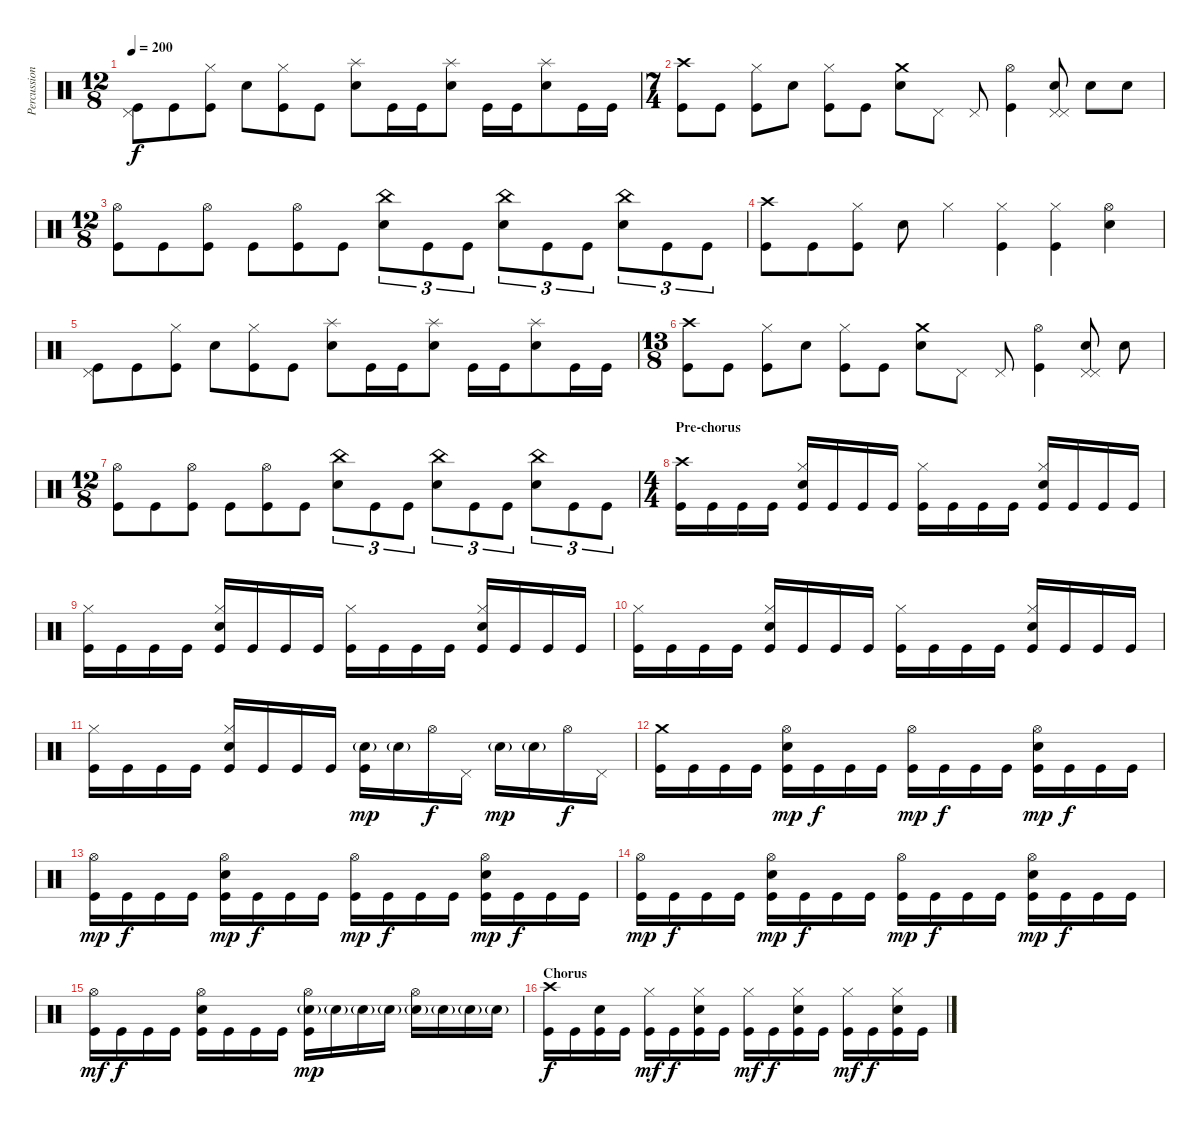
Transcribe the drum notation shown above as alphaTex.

\track ("Percussion" "Percussion") {instrument percussion}
\staff {score}
\articulation defaults
\ts (12 8)
\tempo 200
\clef neutral
\ks c
("Pedal Hi-Hat (hit)" "Kick (hit)").8{dy f} "Kick (hit)".8 ("Hi-Hat (closed)" "Kick (hit)").8 "Electric Snare (hit)".8 ("Hi-Hat (closed)" "Kick (hit)").8 "Kick (hit)".8 ("Splash (hit)" "Electric Snare (hit)").8 "Kick (hit)".16 "Kick (hit)".16 ("Splash (hit)" "Electric Snare (hit)").8 "Kick (hit)".16 "Kick (hit)".16 ("Splash (hit)" "Electric Snare (hit)").8 "Kick (hit)".16 "Kick (hit)".16 |
\ts (7 4)
("Crash high (hit)" "Kick (hit)").8 "Kick (hit)".8 ("Hi-Hat (closed)" "Kick (hit)").8 "Electric Snare (hit)".8 ("Hi-Hat (closed)" "Kick (hit)").8 "Kick (hit)".8 ("Crash medium (hit)" "Electric Snare (hit)").8 "Pedal Hi-Hat (hit)".8 "Pedal Hi-Hat (hit)".8 ("Hi-Hat (open)" "Kick (hit)").4 ("Pedal Hi-Hat (hit)" "Electric Snare (hit)" "Pedal Hi-Hat (hit)").8 "Electric Snare (hit)".8 "Electric Snare (hit)".8 |
\ts (12 8)
("Hi-Hat (open)" "Kick (hit)").8 "Kick (hit)".8 ("Hi-Hat (open)" "Kick (hit)").8 "Kick (hit)".8 ("Hi-Hat (open)" "Kick (hit)").8 "Kick (hit)".8 ("China (hit)" "Electric Snare (hit)").8{tu (3 2)} "Kick (hit)".8{tu (3 2)} "Kick (hit)".8{tu (3 2)} ("China (hit)" "Electric Snare (hit)").8{tu (3 2)} "Kick (hit)".8{tu (3 2)} "Kick (hit)".8{tu (3 2)} ("China (hit)" "Electric Snare (hit)").8{tu (3 2)} "Kick (hit)".8{tu (3 2)} "Kick (hit)".8{tu (3 2)} |
("Crash high (hit)" "Kick (hit)").8 "Kick (hit)".8 ("Hi-Hat (closed)" "Kick (hit)").8 "Electric Snare (hit)".8 "Hi-Hat (closed)".4 ("Hi-Hat (closed)" "Kick (hit)").4 ("Hi-Hat (closed)" "Kick (hit)").4 ("Hi-Hat (open)" "Electric Snare (hit)").4 |
("Pedal Hi-Hat (hit)" "Kick (hit)").8 "Kick (hit)".8 ("Hi-Hat (closed)" "Kick (hit)").8 "Electric Snare (hit)".8 ("Hi-Hat (closed)" "Kick (hit)").8 "Kick (hit)".8 ("Splash (hit)" "Electric Snare (hit)").8 "Kick (hit)".16 "Kick (hit)".16 ("Splash (hit)" "Electric Snare (hit)").8 "Kick (hit)".16 "Kick (hit)".16 ("Splash (hit)" "Electric Snare (hit)").8 "Kick (hit)".16 "Kick (hit)".16 |
\ts (13 8)
("Crash high (hit)" "Kick (hit)").8 "Kick (hit)".8 ("Hi-Hat (closed)" "Kick (hit)").8 "Electric Snare (hit)".8 ("Hi-Hat (closed)" "Kick (hit)").8 "Kick (hit)".8 ("Crash medium (hit)" "Electric Snare (hit)").8 "Pedal Hi-Hat (hit)".8 "Pedal Hi-Hat (hit)".8 ("Hi-Hat (open)" "Kick (hit)").4 ("Pedal Hi-Hat (hit)" "Electric Snare (hit)" "Pedal Hi-Hat (hit)").8 "Electric Snare (hit)".8 |
\ts (12 8)
("Hi-Hat (open)" "Kick (hit)").8 "Kick (hit)".8 ("Hi-Hat (open)" "Kick (hit)").8 "Kick (hit)".8 ("Hi-Hat (open)" "Kick (hit)").8 "Kick (hit)".8 ("China (hit)" "Electric Snare (hit)").8{tu (3 2)} "Kick (hit)".8{tu (3 2)} "Kick (hit)".8{tu (3 2)} ("China (hit)" "Electric Snare (hit)").8{tu (3 2)} "Kick (hit)".8{tu (3 2)} "Kick (hit)".8{tu (3 2)} ("China (hit)" "Electric Snare (hit)").8{tu (3 2)} "Kick (hit)".8{tu (3 2)} "Kick (hit)".8{tu (3 2)} |
\ts (4 4)
\section ("" "Pre-chorus")
("Crash high (hit)" "Kick (hit)").16 "Kick (hit)".16 "Kick (hit)".16 "Kick (hit)".16 ("Hi-Hat (closed)" "Electric Snare (hit)" "Kick (hit)").16 "Kick (hit)".16 "Kick (hit)".16 "Kick (hit)".16 ("Hi-Hat (closed)" "Kick (hit)").16 "Kick (hit)".16 "Kick (hit)".16 "Kick (hit)".16 ("Hi-Hat (closed)" "Electric Snare (hit)" "Kick (hit)").16 "Kick (hit)".16 "Kick (hit)".16 "Kick (hit)".16 |
("Hi-Hat (closed)" "Kick (hit)").16 "Kick (hit)".16 "Kick (hit)".16 "Kick (hit)".16 ("Hi-Hat (closed)" "Electric Snare (hit)" "Kick (hit)").16 "Kick (hit)".16 "Kick (hit)".16 "Kick (hit)".16 ("Hi-Hat (closed)" "Kick (hit)").16 "Kick (hit)".16 "Kick (hit)".16 "Kick (hit)".16 ("Hi-Hat (closed)" "Electric Snare (hit)" "Kick (hit)").16 "Kick (hit)".16 "Kick (hit)".16 "Kick (hit)".16 |
("Hi-Hat (closed)" "Kick (hit)").16 "Kick (hit)".16 "Kick (hit)".16 "Kick (hit)".16 ("Hi-Hat (closed)" "Electric Snare (hit)" "Kick (hit)").16 "Kick (hit)".16 "Kick (hit)".16 "Kick (hit)".16 ("Hi-Hat (closed)" "Kick (hit)").16 "Kick (hit)".16 "Kick (hit)".16 "Kick (hit)".16 ("Hi-Hat (closed)" "Electric Snare (hit)" "Kick (hit)").16 "Kick (hit)".16 "Kick (hit)".16 "Kick (hit)".16 |
("Hi-Hat (closed)" "Kick (hit)").16 "Kick (hit)".16 "Kick (hit)".16 "Kick (hit)".16 ("Hi-Hat (closed)" "Electric Snare (hit)" "Kick (hit)").16 "Kick (hit)".16 "Kick (hit)".16 "Kick (hit)".16 ("Electric Snare (hit)"{g} "Kick (hit)").16{dy mp} "Electric Snare (hit)"{g}.16 "Hi-Hat (open)".16{dy f} "Pedal Hi-Hat (hit)".16 "Electric Snare (hit)"{g}.16{dy mp} "Electric Snare (hit)"{g}.16 "Hi-Hat (open)".16{dy f} "Pedal Hi-Hat (hit)".16 |
("Crash medium (hit)" "Kick (hit)").16 "Kick (hit)".16 "Kick (hit)".16 "Kick (hit)".16 ("Hi-Hat (open)" "Electric Snare (hit)" "Kick (hit)").16{dy mp} "Kick (hit)".16{dy f} "Kick (hit)".16 "Kick (hit)".16 ("Hi-Hat (open)" "Kick (hit)").16{dy mp} "Kick (hit)".16{dy f} "Kick (hit)".16 "Kick (hit)".16 ("Hi-Hat (open)" "Electric Snare (hit)" "Kick (hit)").16{dy mp} "Kick (hit)".16{dy f} "Kick (hit)".16 "Kick (hit)".16 |
("Hi-Hat (open)" "Kick (hit)").16{dy mp} "Kick (hit)".16{dy f} "Kick (hit)".16 "Kick (hit)".16 ("Hi-Hat (open)" "Electric Snare (hit)" "Kick (hit)").16{dy mp} "Kick (hit)".16{dy f} "Kick (hit)".16 "Kick (hit)".16 ("Hi-Hat (open)" "Kick (hit)").16{dy mp} "Kick (hit)".16{dy f} "Kick (hit)".16 "Kick (hit)".16 ("Hi-Hat (open)" "Electric Snare (hit)" "Kick (hit)").16{dy mp} "Kick (hit)".16{dy f} "Kick (hit)".16 "Kick (hit)".16 |
("Hi-Hat (open)" "Kick (hit)").16{dy mp} "Kick (hit)".16{dy f} "Kick (hit)".16 "Kick (hit)".16 ("Hi-Hat (open)" "Electric Snare (hit)" "Kick (hit)").16{dy mp} "Kick (hit)".16{dy f} "Kick (hit)".16 "Kick (hit)".16 ("Hi-Hat (open)" "Kick (hit)").16{dy mp} "Kick (hit)".16{dy f} "Kick (hit)".16 "Kick (hit)".16 ("Hi-Hat (open)" "Electric Snare (hit)" "Kick (hit)").16{dy mp} "Kick (hit)".16{dy f} "Kick (hit)".16 "Kick (hit)".16 |
("Hi-Hat (open)" "Kick (hit)").16{dy mf} "Kick (hit)".16{dy f} "Kick (hit)".16 "Kick (hit)".16 ("Hi-Hat (open)" "Electric Snare (hit)" "Kick (hit)").16 "Kick (hit)".16 "Kick (hit)".16 "Kick (hit)".16 ("Hi-Hat (open)" "Electric Snare (hit)"{g} "Kick (hit)").16{dy mp} "Electric Snare (hit)"{g}.16 "Electric Snare (hit)"{g}.16 "Electric Snare (hit)"{g}.16 ("Hi-Hat (open)" "Electric Snare (hit)"{g}).16 "Electric Snare (hit)"{g}.16 "Electric Snare (hit)"{g}.16 "Electric Snare (hit)"{g}.16 |
\section ("" "Chorus")
("Crash high (hit)" "Kick (hit)").16{dy f} "Kick (hit)".16 ("Electric Snare (hit)" "Kick (hit)").16 "Kick (hit)".16 ("Hi-Hat (closed)" "Kick (hit)").16{dy mf} "Kick (hit)".16{dy f} ("Hi-Hat (closed)" "Electric Snare (hit)" "Kick (hit)").16 "Kick (hit)".16 ("Hi-Hat (closed)" "Kick (hit)").16{dy mf} "Kick (hit)".16{dy f} ("Hi-Hat (closed)" "Electric Snare (hit)" "Kick (hit)").16 "Kick (hit)".16 ("Hi-Hat (closed)" "Kick (hit)").16{dy mf} "Kick (hit)".16{dy f} ("Hi-Hat (closed)" "Electric Snare (hit)" "Kick (hit)").16 "Kick (hit)".16
